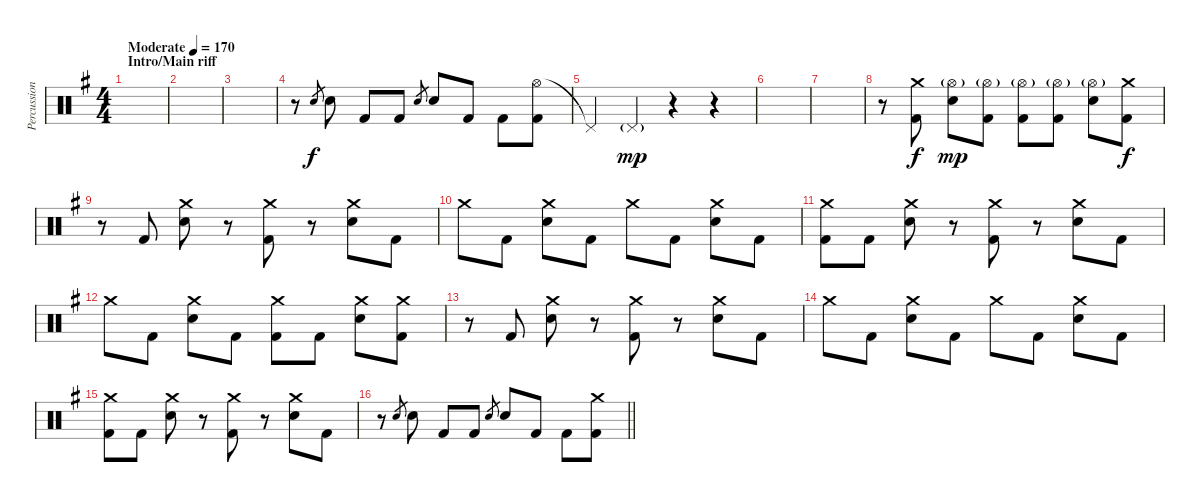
\track ("Percussion" "Percussion") {instrument percussion}
\staff {score}
\articulation defaults
\ts (4 4)
\section ("" "Intro/Main riff")
\tempo (170 "Moderate")
\clef neutral
\ks g
|
|
|
r.8 "Electric Snare (hit)".8{gr} "Electric Snare (hit)".8 "Kick (hit) 2".8 "Kick (hit) 2".8 "Electric Snare (hit)".8{gr} "Electric Snare (hit)".8 "Kick (hit) 2".8 "Kick (hit) 2".8 ("Hi-Hat (open)" "Kick (hit) 2").8 |
"Pedal Hi-Hat (hit)"{t}.4 "Pedal Hi-Hat (hit)"{g}.4{dy mp} r.4 r.4 |
|
|
r.8 ("Crash medium (hit)" "Kick (hit) 2").8{dy f} ("Hi-Hat (open)"{g} "Electric Snare (hit)").8{dy mp} ("Hi-Hat (open)"{g} "Kick (hit) 2").8 ("Hi-Hat (open)"{g} "Kick (hit) 2").8 ("Hi-Hat (open)"{g} "Kick (hit) 2").8 ("Hi-Hat (open)"{g} "Electric Snare (hit)").8 ("Crash medium (hit)" "Kick (hit) 2").8{dy f} |
r.8 "Kick (hit) 2".8 ("Crash medium (hit)" "Electric Snare (hit)").8 r.8 ("Crash medium (hit)" "Kick (hit) 2").8 r.8 ("Crash medium (hit)" "Electric Snare (hit)").8 "Kick (hit) 2".8 |
"Crash medium (hit)".8 "Kick (hit) 2".8 ("Crash medium (hit)" "Electric Snare (hit)").8 "Kick (hit) 2".8 "Crash medium (hit)".8 "Kick (hit) 2".8 ("Crash medium (hit)" "Electric Snare (hit)").8 "Kick (hit) 2".8 |
("Crash medium (hit)" "Kick (hit) 2").8 "Kick (hit) 2".8 ("Crash medium (hit)" "Electric Snare (hit)").8 r.8 ("Crash medium (hit)" "Kick (hit) 2").8 r.8 ("Crash medium (hit)" "Electric Snare (hit)").8 "Kick (hit) 2".8 |
"Crash medium (hit)".8 "Kick (hit) 2".8 ("Crash medium (hit)" "Electric Snare (hit)").8 "Kick (hit) 2".8 ("Crash medium (hit)" "Kick (hit) 2").8 "Kick (hit) 2".8 ("Crash medium (hit)" "Electric Snare (hit)").8 ("Crash medium (hit)" "Kick (hit) 2").8 |
r.8 "Kick (hit) 2".8 ("Crash medium (hit)" "Electric Snare (hit)").8 r.8 ("Crash medium (hit)" "Kick (hit) 2").8 r.8 ("Crash medium (hit)" "Electric Snare (hit)").8 "Kick (hit) 2".8 |
"Crash medium (hit)".8 "Kick (hit) 2".8 ("Crash medium (hit)" "Electric Snare (hit)").8 "Kick (hit) 2".8 "Crash medium (hit)".8 "Kick (hit) 2".8 ("Crash medium (hit)" "Electric Snare (hit)").8 "Kick (hit) 2".8 |
("Crash medium (hit)" "Kick (hit) 2").8 "Kick (hit) 2".8 ("Crash medium (hit)" "Electric Snare (hit)").8 r.8 ("Crash medium (hit)" "Kick (hit) 2").8 r.8 ("Crash medium (hit)" "Electric Snare (hit)").8 "Kick (hit) 2".8 |
\barLineRight lightlight
r.8 "Electric Snare (hit)".8{gr} "Electric Snare (hit)".8 "Kick (hit) 2".8 "Kick (hit) 2".8 "Electric Snare (hit)".8{gr} "Electric Snare (hit)".8 "Kick (hit) 2".8 "Kick (hit) 2".8 ("Crash medium (hit)" "Kick (hit) 2").8
